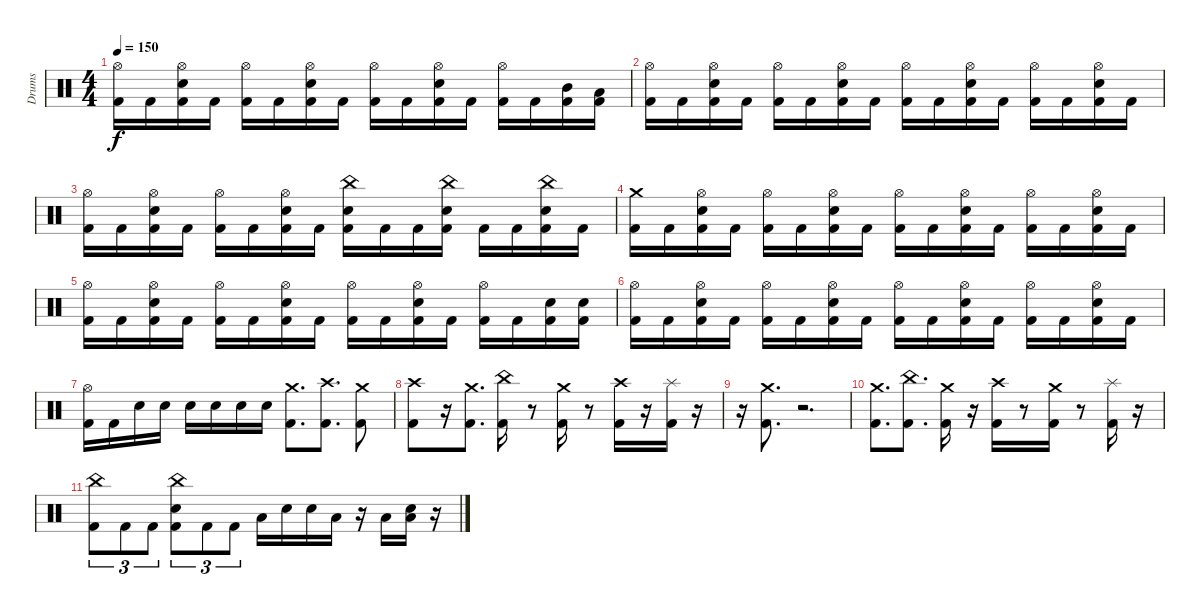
\track ("Drums" "Drums") {instrument percussion}
\staff {score}
\articulation defaults
\ts (4 4)
\tempo 150
\clef neutral
\ks c
("Hi-Hat (open)" "Kick (hit) 2").16{dy f} "Kick (hit) 2".16 ("Hi-Hat (open)" "Electric Snare (hit)" "Kick (hit) 2").16 "Kick (hit) 2".16 ("Hi-Hat (open)" "Kick (hit) 2").16 "Kick (hit) 2".16 ("Hi-Hat (open)" "Electric Snare (hit)" "Kick (hit) 2").16 "Kick (hit) 2".16 ("Hi-Hat (open)" "Kick (hit) 2").16 "Kick (hit) 2".16 ("Hi-Hat (open)" "Electric Snare (hit)" "Kick (hit) 2").16 "Kick (hit) 2".16 ("Hi-Hat (open)" "Kick (hit) 2").16 "Kick (hit) 2".16 ("Mid Tom (hit)" "Kick (hit) 2").16 ("Low Tom (hit)" "Kick (hit) 2").16 |
("Hi-Hat (open)" "Kick (hit) 2").16 "Kick (hit) 2".16 ("Hi-Hat (open)" "Electric Snare (hit)" "Kick (hit) 2").16 "Kick (hit) 2".16 ("Hi-Hat (open)" "Kick (hit) 2").16 "Kick (hit) 2".16 ("Hi-Hat (open)" "Electric Snare (hit)" "Kick (hit) 2").16 "Kick (hit) 2".16 ("Hi-Hat (open)" "Kick (hit) 2").16 "Kick (hit) 2".16 ("Hi-Hat (open)" "Electric Snare (hit)" "Kick (hit) 2").16 "Kick (hit) 2".16 ("Hi-Hat (open)" "Kick (hit) 2").16 "Kick (hit) 2".16 ("Hi-Hat (open)" "Electric Snare (hit)" "Kick (hit) 2").16 "Kick (hit) 2".16 |
("Hi-Hat (open)" "Kick (hit) 2").16 "Kick (hit) 2".16 ("Hi-Hat (open)" "Electric Snare (hit)" "Kick (hit) 2").16 "Kick (hit) 2".16 ("Hi-Hat (open)" "Kick (hit) 2").16 "Kick (hit) 2".16 ("Hi-Hat (open)" "Electric Snare (hit)" "Kick (hit) 2").16 "Kick (hit) 2".16 ("Electric Snare (hit)" "Kick (hit) 2" "China (hit)").16 "Kick (hit) 2".16 "Kick (hit) 2".16 ("Electric Snare (hit)" "Kick (hit) 2" "China (hit)").16 "Kick (hit) 2".16 "Kick (hit) 2".16 ("Electric Snare (hit)" "Kick (hit) 2" "China (hit)").16 "Kick (hit) 2".16 |
("Crash medium (hit)" "Kick (hit) 2").16 "Kick (hit) 2".16 ("Hi-Hat (open)" "Electric Snare (hit)" "Kick (hit) 2").16 "Kick (hit) 2".16 ("Hi-Hat (open)" "Kick (hit) 2").16 "Kick (hit) 2".16 ("Hi-Hat (open)" "Electric Snare (hit)" "Kick (hit) 2").16 "Kick (hit) 2".16 ("Hi-Hat (open)" "Kick (hit) 2").16 "Kick (hit) 2".16 ("Hi-Hat (open)" "Electric Snare (hit)" "Kick (hit) 2").16 "Kick (hit) 2".16 ("Hi-Hat (open)" "Kick (hit) 2").16 "Kick (hit) 2".16 ("Hi-Hat (open)" "Electric Snare (hit)" "Kick (hit) 2").16 "Kick (hit) 2".16 |
("Hi-Hat (open)" "Kick (hit) 2").16 "Kick (hit) 2".16 ("Hi-Hat (open)" "Electric Snare (hit)" "Kick (hit) 2").16 "Kick (hit) 2".16 ("Hi-Hat (open)" "Kick (hit) 2").16 "Kick (hit) 2".16 ("Hi-Hat (open)" "Electric Snare (hit)" "Kick (hit) 2").16 "Kick (hit) 2".16 ("Hi-Hat (open)" "Kick (hit) 2").16 "Kick (hit) 2".16 ("Hi-Hat (open)" "Electric Snare (hit)" "Kick (hit) 2").16 "Kick (hit) 2".16 ("Hi-Hat (open)" "Kick (hit) 2").16 "Kick (hit) 2".16 ("Electric Snare (hit)" "Kick (hit) 2").16 ("Electric Snare (hit)" "Kick (hit) 2").16 |
("Hi-Hat (open)" "Kick (hit) 2").16 "Kick (hit) 2".16 ("Hi-Hat (open)" "Electric Snare (hit)" "Kick (hit) 2").16 "Kick (hit) 2".16 ("Hi-Hat (open)" "Kick (hit) 2").16 "Kick (hit) 2".16 ("Hi-Hat (open)" "Electric Snare (hit)" "Kick (hit) 2").16 "Kick (hit) 2".16 ("Hi-Hat (open)" "Kick (hit) 2").16 "Kick (hit) 2".16 ("Hi-Hat (open)" "Electric Snare (hit)" "Kick (hit) 2").16 "Kick (hit) 2".16 ("Hi-Hat (open)" "Kick (hit) 2").16 "Kick (hit) 2".16 ("Hi-Hat (open)" "Electric Snare (hit)" "Kick (hit) 2").16 "Kick (hit) 2".16 |
("Hi-Hat (open)" "Kick (hit) 2").16 "Kick (hit) 2".16 "Electric Snare (hit)".16 "Electric Snare (hit)".16 "Electric Snare (hit)".16 "Electric Snare (hit)".16 "Electric Snare (hit)".16 "Electric Snare (hit)".16 ("Crash medium (hit)" "Kick (hit) 2").8{d} ("Crash high (hit)" "Kick (hit) 2").8{d} ("Crash medium (hit)" "Kick (hit) 2").8 |
("Crash high (hit)" "Kick (hit) 2").8 r.16 ("Crash medium (hit)" "Kick (hit) 2").8{d} ("China (hit)" "Kick (hit) 2").16 r.8 ("Crash medium (hit)" "Kick (hit) 2").16 r.8 ("Crash high (hit)" "Kick (hit) 2").16 r.16 ("Splash (hit)" "Kick (hit) 2").16 r.16 |
r.16 ("Crash medium (hit)" "Kick (hit) 2").8{d} r.2{d} |
("Crash medium (hit)" "Kick (hit) 2").8{d} ("China (hit)" "Kick (hit) 2").8{d} ("Crash medium (hit)" "Kick (hit) 2").16 r.16 ("Crash high (hit)" "Kick (hit) 2").16 r.8 ("Crash medium (hit)" "Kick (hit) 2").16 r.8 ("Splash (hit)" "Kick (hit) 2").16 r.16 |
("Kick (hit) 2" "China (hit)").8{tu (3 2)} "Kick (hit) 2".8{tu (3 2)} "Kick (hit) 2".8{tu (3 2)} ("Electric Snare (hit)" "Kick (hit) 2" "China (hit)").8{tu (3 2)} "Kick (hit) 2".8{tu (3 2)} "Kick (hit) 2".8{tu (3 2)} "Low Tom (hit)".16 "Electric Snare (hit)".16 "Electric Snare (hit)".16 "Low Tom (hit)".16 r.16 "Low Tom (hit)".16 ("Low Tom (hit)" "Electric Snare (hit)").16 r.16
